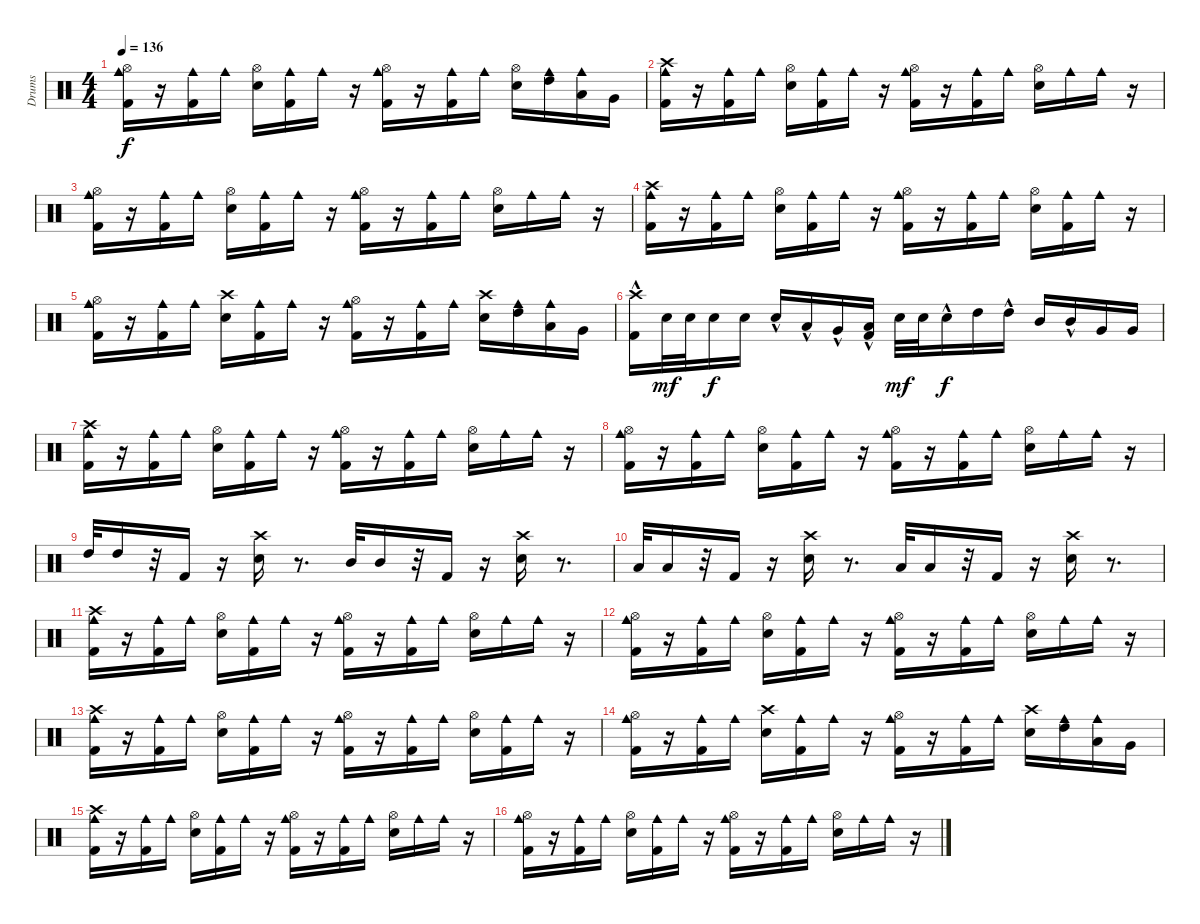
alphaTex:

\track ("Drums" "Drums") {instrument percussion}
\staff {score}
\articulation defaults
\ts (4 4)
\tempo 136
\clef neutral
\ks c
("Kick (hit) 2" "Cowbell medium (hit)" "Hi-Hat (open)").16{dy f} r.16 ("Kick (hit) 2" "Cowbell medium (hit)").16 "Cowbell medium (hit)".16 ("Metronome (bell)" "Hi-Hat (open)").16 ("Cowbell medium (hit)" "Kick (hit) 2").16 "Cowbell medium (hit)".16 r.16 ("Kick (hit) 2" "Cowbell medium (hit)" "Hi-Hat (open)").16 r.16 ("Kick (hit) 2" "Cowbell medium (hit)").16 "Cowbell medium (hit)".16 ("Metronome (bell)" "Hi-Hat (open)").16 ("Cowbell medium (hit)" "High Tom (hit)").16 ("Cowbell medium (hit)" "Low Tom (hit)").16 "Very Low Tom (hit)".16 |
("Cowbell medium (hit)" "Kick (hit) 2" "Crash high (hit)").16 r.16 ("Cowbell medium (hit)" "Kick (hit) 2").16 "Cowbell medium (hit)".16 ("Metronome (bell)" "Hi-Hat (open)").16 ("Cowbell medium (hit)" "Kick (hit) 2").16 "Cowbell medium (hit)".16 r.16 ("Kick (hit) 2" "Cowbell medium (hit)" "Hi-Hat (open)").16 r.16 ("Cowbell medium (hit)" "Kick (hit) 2").16 "Cowbell medium (hit)".16 ("Metronome (bell)" "Hi-Hat (open)").16 "Cowbell medium (hit)".16 "Cowbell medium (hit)".16 r.16 |
("Kick (hit) 2" "Cowbell medium (hit)" "Hi-Hat (open)").16 r.16 ("Kick (hit) 2" "Cowbell medium (hit)").16 "Cowbell medium (hit)".16 ("Metronome (bell)" "Hi-Hat (open)").16 ("Cowbell medium (hit)" "Kick (hit) 2").16 "Cowbell medium (hit)".16 r.16 ("Kick (hit) 2" "Cowbell medium (hit)" "Hi-Hat (open)").16 r.16 ("Kick (hit) 2" "Cowbell medium (hit)").16 "Cowbell medium (hit)".16 ("Metronome (bell)" "Hi-Hat (open)").16 "Cowbell medium (hit)".16 "Cowbell medium (hit)".16 r.16 |
("Cowbell medium (hit)" "Kick (hit) 2" "Crash high (hit)").16 r.16 ("Cowbell medium (hit)" "Kick (hit) 2").16 "Cowbell medium (hit)".16 ("Metronome (bell)" "Hi-Hat (open)").16 ("Cowbell medium (hit)" "Kick (hit) 2").16 "Cowbell medium (hit)".16 r.16 ("Kick (hit) 2" "Cowbell medium (hit)" "Hi-Hat (open)").16 r.16 ("Cowbell medium (hit)" "Kick (hit) 2").16 "Cowbell medium (hit)".16 ("Metronome (bell)" "Hi-Hat (open)").16 ("Cowbell medium (hit)" "Kick (hit) 2").16 "Cowbell medium (hit)".16 r.16 |
("Kick (hit) 2" "Cowbell medium (hit)" "Hi-Hat (open)").16 r.16 ("Kick (hit) 2" "Cowbell medium (hit)").16 "Cowbell medium (hit)".16 ("Metronome (bell)" "Crash high (hit)").16 ("Cowbell medium (hit)" "Kick (hit) 2").16 "Cowbell medium (hit)".16 r.16 ("Kick (hit) 2" "Cowbell medium (hit)" "Hi-Hat (open)").16 r.16 ("Kick (hit) 2" "Cowbell medium (hit)").16 "Cowbell medium (hit)".16 ("Metronome (bell)" "Crash high (hit)").16 ("Cowbell medium (hit)" "High Tom (hit)").16 ("Cowbell medium (hit)" "Low Tom (hit)").16 "Very Low Tom (hit)".16 |
("Crash high (hit)"{hac} "Kick (hit) 2"{hac}).16 "Metronome (bell)".32{dy mf} "Metronome (bell)".32 "Metronome (bell)".16{dy f} "Metronome (bell)".16 "Metronome (bell)"{hac}.16 "Low Tom (hit)"{hac}.16 "Very Low Tom (hit)"{hac}.16 ("Kick (hit) 2"{hac} "Low Floor Tom (hit)"{hac}).16 "Metronome (bell)".32{dy mf} "Metronome (bell)".32 "Metronome (bell)"{hac}.16{dy f} "High Tom (hit)".16 "High Tom (hit)"{hac}.16 "Mid Tom (hit)".16 "Mid Tom (hit)"{hac}.16 "Very Low Tom (hit)".16 "Very Low Tom (hit)".16 |
("Cowbell medium (hit)" "Kick (hit) 2" "Crash high (hit)").16 r.16 ("Cowbell medium (hit)" "Kick (hit) 2").16 "Cowbell medium (hit)".16 ("Metronome (bell)" "Hi-Hat (open)").16 ("Cowbell medium (hit)" "Kick (hit) 2").16 "Cowbell medium (hit)".16 r.16 ("Kick (hit) 2" "Cowbell medium (hit)" "Hi-Hat (open)").16 r.16 ("Cowbell medium (hit)" "Kick (hit) 2").16 "Cowbell medium (hit)".16 ("Metronome (bell)" "Hi-Hat (open)").16 "Cowbell medium (hit)".16 "Cowbell medium (hit)".16 r.16 |
("Kick (hit) 2" "Cowbell medium (hit)" "Hi-Hat (open)").16 r.16 ("Kick (hit) 2" "Cowbell medium (hit)").16 "Cowbell medium (hit)".16 ("Metronome (bell)" "Hi-Hat (open)").16 ("Cowbell medium (hit)" "Kick (hit) 2").16 "Cowbell medium (hit)".16 r.16 ("Kick (hit) 2" "Cowbell medium (hit)" "Hi-Hat (open)").16 r.16 ("Kick (hit) 2" "Cowbell medium (hit)").16 "Cowbell medium (hit)".16 ("Metronome (bell)" "Hi-Hat (open)").16 "Cowbell medium (hit)".16 "Cowbell medium (hit)".16 r.16 |
"High Tom (hit)".32 "High Tom (hit)".16 r.32 "Kick (hit) 2".16 r.16 ("Metronome (bell)" "Crash high (hit)").16 r.8{d} "Mid Tom (hit)".32 "Mid Tom (hit)".16 r.32 "Kick (hit) 2".16 r.16 ("Metronome (bell)" "Crash high (hit)").16 r.8{d} |
"Low Tom (hit)".32 "Low Tom (hit)".16 r.32 "Kick (hit) 2".16 r.16 ("Metronome (bell)" "Crash high (hit)").16 r.8{d} "Low Floor Tom (hit)".32 "Low Floor Tom (hit)".16 r.32 "Kick (hit) 2".16 r.16 ("Metronome (bell)" "Crash high (hit)").16 r.8{d} |
("Cowbell medium (hit)" "Kick (hit) 2" "Crash high (hit)").16 r.16 ("Cowbell medium (hit)" "Kick (hit) 2").16 "Cowbell medium (hit)".16 ("Metronome (bell)" "Hi-Hat (open)").16 ("Cowbell medium (hit)" "Kick (hit) 2").16 "Cowbell medium (hit)".16 r.16 ("Kick (hit) 2" "Cowbell medium (hit)" "Hi-Hat (open)").16 r.16 ("Cowbell medium (hit)" "Kick (hit) 2").16 "Cowbell medium (hit)".16 ("Metronome (bell)" "Hi-Hat (open)").16 "Cowbell medium (hit)".16 "Cowbell medium (hit)".16 r.16 |
("Kick (hit) 2" "Cowbell medium (hit)" "Hi-Hat (open)").16 r.16 ("Kick (hit) 2" "Cowbell medium (hit)").16 "Cowbell medium (hit)".16 ("Metronome (bell)" "Hi-Hat (open)").16 ("Cowbell medium (hit)" "Kick (hit) 2").16 "Cowbell medium (hit)".16 r.16 ("Kick (hit) 2" "Cowbell medium (hit)" "Hi-Hat (open)").16 r.16 ("Kick (hit) 2" "Cowbell medium (hit)").16 "Cowbell medium (hit)".16 ("Metronome (bell)" "Hi-Hat (open)").16 "Cowbell medium (hit)".16 "Cowbell medium (hit)".16 r.16 |
("Cowbell medium (hit)" "Kick (hit) 2" "Crash high (hit)").16 r.16 ("Cowbell medium (hit)" "Kick (hit) 2").16 "Cowbell medium (hit)".16 ("Metronome (bell)" "Hi-Hat (open)").16 ("Cowbell medium (hit)" "Kick (hit) 2").16 "Cowbell medium (hit)".16 r.16 ("Kick (hit) 2" "Cowbell medium (hit)" "Hi-Hat (open)").16 r.16 ("Cowbell medium (hit)" "Kick (hit) 2").16 "Cowbell medium (hit)".16 ("Metronome (bell)" "Hi-Hat (open)").16 ("Cowbell medium (hit)" "Kick (hit) 2").16 "Cowbell medium (hit)".16 r.16 |
("Kick (hit) 2" "Cowbell medium (hit)" "Hi-Hat (open)").16 r.16 ("Kick (hit) 2" "Cowbell medium (hit)").16 "Cowbell medium (hit)".16 ("Metronome (bell)" "Crash high (hit)").16 ("Cowbell medium (hit)" "Kick (hit) 2").16 "Cowbell medium (hit)".16 r.16 ("Kick (hit) 2" "Cowbell medium (hit)" "Hi-Hat (open)").16 r.16 ("Kick (hit) 2" "Cowbell medium (hit)").16 "Cowbell medium (hit)".16 ("Metronome (bell)" "Crash high (hit)").16 ("Cowbell medium (hit)" "High Tom (hit)").16 ("Cowbell medium (hit)" "Low Tom (hit)").16 "Very Low Tom (hit)".16 |
("Cowbell medium (hit)" "Kick (hit) 2" "Crash high (hit)").16 r.16 ("Cowbell medium (hit)" "Kick (hit) 2").16 "Cowbell medium (hit)".16 ("Metronome (bell)" "Hi-Hat (open)").16 ("Cowbell medium (hit)" "Kick (hit) 2").16 "Cowbell medium (hit)".16 r.16 ("Kick (hit) 2" "Cowbell medium (hit)" "Hi-Hat (open)").16 r.16 ("Cowbell medium (hit)" "Kick (hit) 2").16 "Cowbell medium (hit)".16 ("Metronome (bell)" "Hi-Hat (open)").16 "Cowbell medium (hit)".16 "Cowbell medium (hit)".16 r.16 |
("Kick (hit) 2" "Cowbell medium (hit)" "Hi-Hat (open)").16 r.16 ("Kick (hit) 2" "Cowbell medium (hit)").16 "Cowbell medium (hit)".16 ("Metronome (bell)" "Hi-Hat (open)").16 ("Cowbell medium (hit)" "Kick (hit) 2").16 "Cowbell medium (hit)".16 r.16 ("Kick (hit) 2" "Cowbell medium (hit)" "Hi-Hat (open)").16 r.16 ("Kick (hit) 2" "Cowbell medium (hit)").16 "Cowbell medium (hit)".16 ("Metronome (bell)" "Hi-Hat (open)").16 "Cowbell medium (hit)".16 "Cowbell medium (hit)".16 r.16
